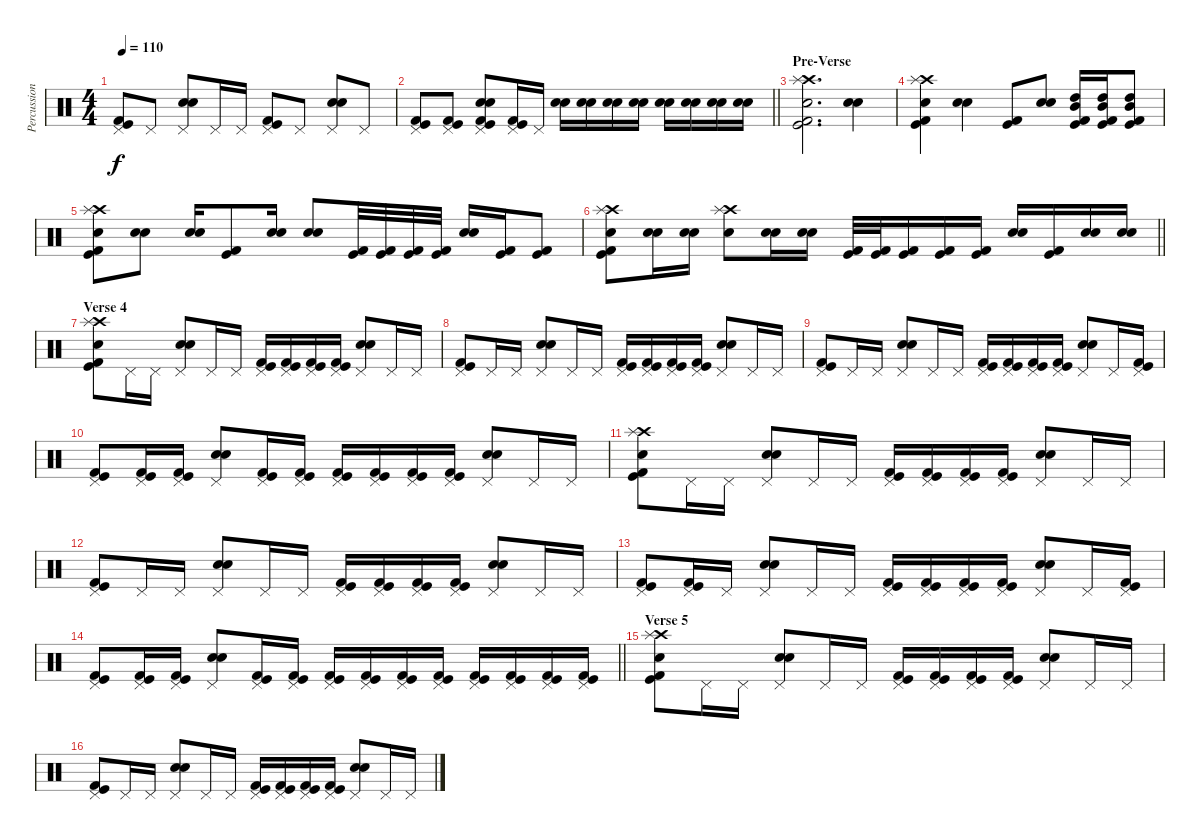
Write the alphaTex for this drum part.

\track ("Percussion" "Percussion") {instrument percussion}
\staff {score}
\articulation defaults
\ts (4 4)
\tempo 110
\clef neutral
\ks c
("Pedal Hi-Hat (hit)" "Kick (hit)" "Kick (hit) 2").8{dy f} "Pedal Hi-Hat (hit)".8 ("Snare (hit) 2" "Pedal Hi-Hat (hit)" "Electric Snare (hit)").8 "Pedal Hi-Hat (hit)".16 "Pedal Hi-Hat (hit)".16 ("Pedal Hi-Hat (hit)" "Kick (hit)" "Kick (hit) 2").8 "Pedal Hi-Hat (hit)".8 ("Snare (hit) 2" "Pedal Hi-Hat (hit)" "Electric Snare (hit)").8 "Pedal Hi-Hat (hit)".8 |
\barLineRight lightlight
("Pedal Hi-Hat (hit)" "Kick (hit)" "Kick (hit) 2").8 ("Pedal Hi-Hat (hit)" "Kick (hit)" "Kick (hit) 2").8 ("Snare (hit) 2" "Pedal Hi-Hat (hit)" "Electric Snare (hit)" "Kick (hit)" "Kick (hit) 2").8 ("Pedal Hi-Hat (hit)" "Kick (hit)" "Kick (hit) 2").16 "Pedal Hi-Hat (hit)".16 ("Snare (hit) 2" "Electric Snare (hit)").16 ("Snare (hit) 2" "Electric Snare (hit)").16 ("Snare (hit) 2" "Electric Snare (hit)").16 ("Snare (hit) 2" "Electric Snare (hit)").16 ("Snare (hit) 2" "Electric Snare (hit)").16 ("Snare (hit) 2" "Electric Snare (hit)").16 ("Snare (hit) 2" "Electric Snare (hit)").16 ("Snare (hit) 2" "Electric Snare (hit)").16 |
\section ("" "Pre-Verse")
("Crash high (hit)" "Splash (hit)" "Snare (hit) 2" "Kick (hit)" "Kick (hit) 2").2{d} ("Snare (hit) 2" "Electric Snare (hit)").4 |
("Crash high (hit)" "Splash (hit)" "Snare (hit) 2" "Kick (hit)" "Kick (hit) 2").4 ("Snare (hit) 2" "Electric Snare (hit)").4 ("Kick (hit)" "Kick (hit) 2").8 ("Snare (hit) 2" "Electric Snare (hit)").8 ("High Tom (hit)" "Mid Tom (hit)" "Kick (hit)" "Kick (hit) 2").16 ("High Tom (hit)" "Mid Tom (hit)" "Kick (hit)" "Kick (hit) 2").16 ("High Tom (hit)" "Mid Tom (hit)" "Kick (hit)" "Kick (hit) 2").8 |
("Crash high (hit)" "Splash (hit)" "Snare (hit) 2" "Kick (hit)" "Kick (hit) 2").8 ("Electric Snare (hit)" "Snare (hit) 2").8 ("Electric Snare (hit)" "Snare (hit) 2").16 ("Kick (hit)" "Kick (hit) 2").8 ("Electric Snare (hit)" "Snare (hit) 2").16 ("Electric Snare (hit)" "Snare (hit) 2").8 ("Kick (hit)" "Kick (hit) 2").32 ("Kick (hit)" "Kick (hit) 2").32 ("Kick (hit)" "Kick (hit) 2").32 ("Kick (hit)" "Kick (hit) 2").32 ("Electric Snare (hit)" "Snare (hit) 2").16 ("Kick (hit)" "Kick (hit) 2").16 ("Kick (hit)" "Kick (hit) 2").8 |
\barLineRight lightlight
("Crash high (hit)" "Splash (hit)" "Snare (hit) 2" "Kick (hit)" "Kick (hit) 2").8 ("Electric Snare (hit)" "Snare (hit) 2").16 ("Electric Snare (hit)" "Snare (hit) 2").16 ("Crash high (hit)" "Splash (hit)" "Snare (hit) 2").8 ("Electric Snare (hit)" "Snare (hit) 2").16 ("Electric Snare (hit)" "Snare (hit) 2").16 ("Kick (hit)" "Kick (hit) 2").32 ("Kick (hit)" "Kick (hit) 2").32 ("Kick (hit)" "Kick (hit) 2").16 ("Kick (hit)" "Kick (hit) 2").16 ("Kick (hit)" "Kick (hit) 2").16 ("Electric Snare (hit)" "Snare (hit) 2").16 ("Kick (hit)" "Kick (hit) 2").16 ("Electric Snare (hit)" "Snare (hit) 2").16 ("Electric Snare (hit)" "Snare (hit) 2").16 |
\section ("" "Verse 4")
("Crash high (hit)" "Splash (hit)" "Snare (hit) 2" "Kick (hit)" "Kick (hit) 2").8 "Pedal Hi-Hat (hit)".16 "Pedal Hi-Hat (hit)".16 ("Electric Snare (hit)" "Snare (hit) 2" "Pedal Hi-Hat (hit)").8 "Pedal Hi-Hat (hit)".16 "Pedal Hi-Hat (hit)".16 ("Pedal Hi-Hat (hit)" "Kick (hit)" "Kick (hit) 2").16 ("Pedal Hi-Hat (hit)" "Kick (hit)" "Kick (hit) 2").16 ("Pedal Hi-Hat (hit)" "Kick (hit)" "Kick (hit) 2").16 ("Pedal Hi-Hat (hit)" "Kick (hit)" "Kick (hit) 2").16 ("Electric Snare (hit)" "Snare (hit) 2" "Pedal Hi-Hat (hit)").8 "Pedal Hi-Hat (hit)".16 "Pedal Hi-Hat (hit)".16 |
("Pedal Hi-Hat (hit)" "Kick (hit)" "Kick (hit) 2").8 "Pedal Hi-Hat (hit)".16 "Pedal Hi-Hat (hit)".16 ("Electric Snare (hit)" "Snare (hit) 2" "Pedal Hi-Hat (hit)").8 "Pedal Hi-Hat (hit)".16 "Pedal Hi-Hat (hit)".16 ("Pedal Hi-Hat (hit)" "Kick (hit)" "Kick (hit) 2").16 ("Pedal Hi-Hat (hit)" "Kick (hit)" "Kick (hit) 2").16 ("Pedal Hi-Hat (hit)" "Kick (hit)" "Kick (hit) 2").16 ("Pedal Hi-Hat (hit)" "Kick (hit)" "Kick (hit) 2").16 ("Electric Snare (hit)" "Snare (hit) 2" "Pedal Hi-Hat (hit)").8 "Pedal Hi-Hat (hit)".16 "Pedal Hi-Hat (hit)".16 |
("Pedal Hi-Hat (hit)" "Kick (hit)" "Kick (hit) 2").8 "Pedal Hi-Hat (hit)".16 "Pedal Hi-Hat (hit)".16 ("Electric Snare (hit)" "Snare (hit) 2" "Pedal Hi-Hat (hit)").8 "Pedal Hi-Hat (hit)".16 "Pedal Hi-Hat (hit)".16 ("Pedal Hi-Hat (hit)" "Kick (hit)" "Kick (hit) 2").16 ("Pedal Hi-Hat (hit)" "Kick (hit)" "Kick (hit) 2").16 ("Pedal Hi-Hat (hit)" "Kick (hit)" "Kick (hit) 2").16 ("Pedal Hi-Hat (hit)" "Kick (hit)" "Kick (hit) 2").16 ("Electric Snare (hit)" "Snare (hit) 2" "Pedal Hi-Hat (hit)").8 "Pedal Hi-Hat (hit)".16 ("Pedal Hi-Hat (hit)" "Kick (hit)" "Kick (hit) 2").16 |
("Pedal Hi-Hat (hit)" "Kick (hit)" "Kick (hit) 2").8 ("Pedal Hi-Hat (hit)" "Kick (hit)" "Kick (hit) 2").16 ("Pedal Hi-Hat (hit)" "Kick (hit)" "Kick (hit) 2").16 ("Electric Snare (hit)" "Snare (hit) 2" "Pedal Hi-Hat (hit)").8 ("Pedal Hi-Hat (hit)" "Kick (hit)" "Kick (hit) 2").16 ("Pedal Hi-Hat (hit)" "Kick (hit)" "Kick (hit) 2").16 ("Pedal Hi-Hat (hit)" "Kick (hit)" "Kick (hit) 2").16 ("Pedal Hi-Hat (hit)" "Kick (hit)" "Kick (hit) 2").16 ("Pedal Hi-Hat (hit)" "Kick (hit)" "Kick (hit) 2").16 ("Pedal Hi-Hat (hit)" "Kick (hit)" "Kick (hit) 2").16 ("Electric Snare (hit)" "Snare (hit) 2" "Pedal Hi-Hat (hit)").8 "Pedal Hi-Hat (hit)".16 "Pedal Hi-Hat (hit)".16 |
("Crash high (hit)" "Splash (hit)" "Snare (hit) 2" "Kick (hit)" "Kick (hit) 2").8 "Pedal Hi-Hat (hit)".16 "Pedal Hi-Hat (hit)".16 ("Electric Snare (hit)" "Snare (hit) 2" "Pedal Hi-Hat (hit)").8 "Pedal Hi-Hat (hit)".16 "Pedal Hi-Hat (hit)".16 ("Pedal Hi-Hat (hit)" "Kick (hit)" "Kick (hit) 2").16 ("Pedal Hi-Hat (hit)" "Kick (hit)" "Kick (hit) 2").16 ("Pedal Hi-Hat (hit)" "Kick (hit)" "Kick (hit) 2").16 ("Pedal Hi-Hat (hit)" "Kick (hit)" "Kick (hit) 2").16 ("Electric Snare (hit)" "Snare (hit) 2" "Pedal Hi-Hat (hit)").8 "Pedal Hi-Hat (hit)".16 "Pedal Hi-Hat (hit)".16 |
("Pedal Hi-Hat (hit)" "Kick (hit)" "Kick (hit) 2").8 "Pedal Hi-Hat (hit)".16 "Pedal Hi-Hat (hit)".16 ("Electric Snare (hit)" "Snare (hit) 2" "Pedal Hi-Hat (hit)").8 "Pedal Hi-Hat (hit)".16 "Pedal Hi-Hat (hit)".16 ("Pedal Hi-Hat (hit)" "Kick (hit)" "Kick (hit) 2").16 ("Pedal Hi-Hat (hit)" "Kick (hit)" "Kick (hit) 2").16 ("Pedal Hi-Hat (hit)" "Kick (hit)" "Kick (hit) 2").16 ("Pedal Hi-Hat (hit)" "Kick (hit)" "Kick (hit) 2").16 ("Electric Snare (hit)" "Snare (hit) 2" "Pedal Hi-Hat (hit)").8 "Pedal Hi-Hat (hit)".16 "Pedal Hi-Hat (hit)".16 |
("Pedal Hi-Hat (hit)" "Kick (hit)" "Kick (hit) 2").8 ("Pedal Hi-Hat (hit)" "Kick (hit)" "Kick (hit) 2").16 "Pedal Hi-Hat (hit)".16 ("Electric Snare (hit)" "Snare (hit) 2" "Pedal Hi-Hat (hit)").8 "Pedal Hi-Hat (hit)".16 "Pedal Hi-Hat (hit)".16 ("Pedal Hi-Hat (hit)" "Kick (hit)" "Kick (hit) 2").16 ("Pedal Hi-Hat (hit)" "Kick (hit)" "Kick (hit) 2").16 ("Pedal Hi-Hat (hit)" "Kick (hit)" "Kick (hit) 2").16 ("Pedal Hi-Hat (hit)" "Kick (hit)" "Kick (hit) 2").16 ("Electric Snare (hit)" "Snare (hit) 2" "Pedal Hi-Hat (hit)").8 "Pedal Hi-Hat (hit)".16 ("Pedal Hi-Hat (hit)" "Kick (hit)" "Kick (hit) 2").16 |
\barLineRight lightlight
("Pedal Hi-Hat (hit)" "Kick (hit)" "Kick (hit) 2").8 ("Pedal Hi-Hat (hit)" "Kick (hit)" "Kick (hit) 2").16 ("Pedal Hi-Hat (hit)" "Kick (hit)" "Kick (hit) 2").16 ("Electric Snare (hit)" "Snare (hit) 2" "Pedal Hi-Hat (hit)").8 ("Pedal Hi-Hat (hit)" "Kick (hit)" "Kick (hit) 2").16 ("Pedal Hi-Hat (hit)" "Kick (hit)" "Kick (hit) 2").16 ("Pedal Hi-Hat (hit)" "Kick (hit)" "Kick (hit) 2").16 ("Pedal Hi-Hat (hit)" "Kick (hit)" "Kick (hit) 2").16 ("Pedal Hi-Hat (hit)" "Kick (hit)" "Kick (hit) 2").16 ("Pedal Hi-Hat (hit)" "Kick (hit)" "Kick (hit) 2").16 ("Pedal Hi-Hat (hit)" "Kick (hit)" "Kick (hit) 2").16 ("Pedal Hi-Hat (hit)" "Kick (hit)" "Kick (hit) 2").16 ("Pedal Hi-Hat (hit)" "Kick (hit)" "Kick (hit) 2").16 ("Pedal Hi-Hat (hit)" "Kick (hit)" "Kick (hit) 2").16 |
\section ("" "Verse 5")
("Crash high (hit)" "Splash (hit)" "Snare (hit) 2" "Kick (hit)" "Kick (hit) 2").8 "Pedal Hi-Hat (hit)".16 "Pedal Hi-Hat (hit)".16 ("Electric Snare (hit)" "Snare (hit) 2" "Pedal Hi-Hat (hit)").8 "Pedal Hi-Hat (hit)".16 "Pedal Hi-Hat (hit)".16 ("Pedal Hi-Hat (hit)" "Kick (hit)" "Kick (hit) 2").16 ("Pedal Hi-Hat (hit)" "Kick (hit)" "Kick (hit) 2").16 ("Pedal Hi-Hat (hit)" "Kick (hit)" "Kick (hit) 2").16 ("Pedal Hi-Hat (hit)" "Kick (hit)" "Kick (hit) 2").16 ("Electric Snare (hit)" "Snare (hit) 2" "Pedal Hi-Hat (hit)").8 "Pedal Hi-Hat (hit)".16 "Pedal Hi-Hat (hit)".16 |
("Pedal Hi-Hat (hit)" "Kick (hit)" "Kick (hit) 2").8 "Pedal Hi-Hat (hit)".16 "Pedal Hi-Hat (hit)".16 ("Electric Snare (hit)" "Snare (hit) 2" "Pedal Hi-Hat (hit)").8 "Pedal Hi-Hat (hit)".16 "Pedal Hi-Hat (hit)".16 ("Pedal Hi-Hat (hit)" "Kick (hit)" "Kick (hit) 2").16 ("Pedal Hi-Hat (hit)" "Kick (hit)" "Kick (hit) 2").16 ("Pedal Hi-Hat (hit)" "Kick (hit)" "Kick (hit) 2").16 ("Pedal Hi-Hat (hit)" "Kick (hit)" "Kick (hit) 2").16 ("Electric Snare (hit)" "Snare (hit) 2" "Pedal Hi-Hat (hit)").8 "Pedal Hi-Hat (hit)".16 "Pedal Hi-Hat (hit)".16
